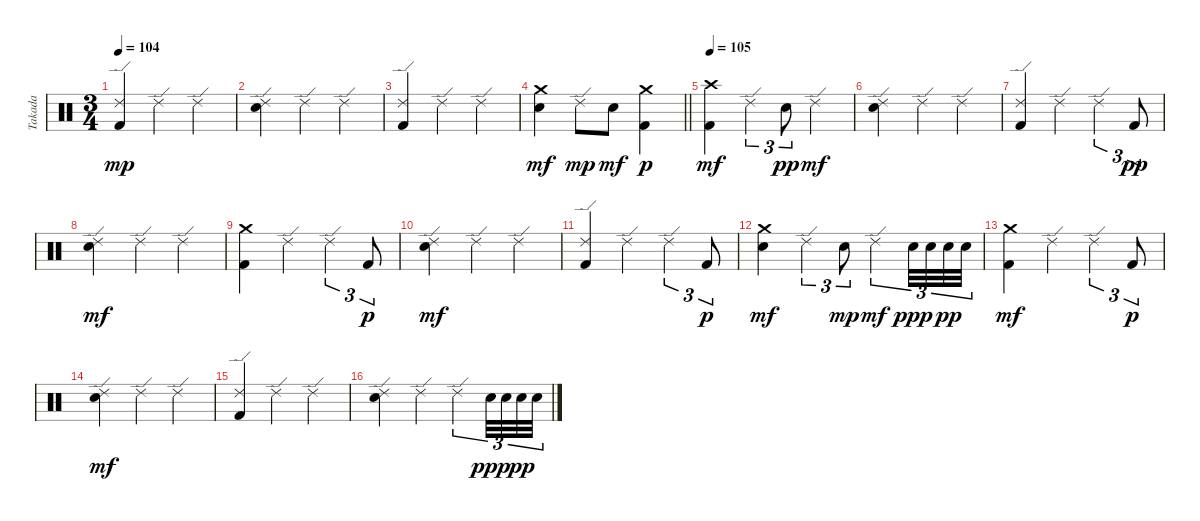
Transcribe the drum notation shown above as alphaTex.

\track ("Takada" "Takada") {instrument percussion}
\staff {score}
\articulation defaults
\ts (3 4)
\tempo 104
\clef neutral
\ks c
("Ride (edge) 2" "Kick (hit) 2").4{dy mp} "Ride (edge) 2".4 "Ride (edge) 2".4 |
("Ride (edge) 2" "Electric Snare (hit)").4 "Ride (edge) 2".4 "Ride (edge) 2".4 |
("Ride (edge) 2" "Kick (hit) 2").4 "Ride (edge) 2".4 "Ride (edge) 2".4 |
\barLineRight lightlight
("Crash medium (hit)" "Electric Snare (hit)").4{dy mf} "Ride (edge) 2".8{dy mp} "Electric Snare (hit)".8{dy mf} ("Crash medium (hit)" "Kick (hit) 2").4{dy p} |
\section ("" "")
\tempo 105
("Crash high (hit)" "Kick (hit) 2").4{dy mf} "Ride (edge) 2".4{tu (3 2)} "Electric Snare (hit)".8{tu (3 2) dy pp} "Ride (edge) 2".4{dy mf} |
("Ride (edge) 2" "Electric Snare (hit)").4 "Ride (edge) 2".4 "Ride (edge) 2".4 |
("Ride (edge) 2" "Kick (hit) 2").4 "Ride (edge) 2".4 "Ride (edge) 2".4{tu (3 2)} "Kick (hit) 2".8{tu (3 2) dy pp} |
("Ride (edge) 2" "Electric Snare (hit)").4{dy mf} "Ride (edge) 2".4 "Ride (edge) 2".4 |
("Crash medium (hit)" "Kick (hit) 2").4 "Ride (edge) 2".4 "Ride (edge) 2".4{tu (3 2)} "Kick (hit) 2".8{tu (3 2) dy p} |
("Ride (edge) 2" "Electric Snare (hit)").4{dy mf} "Ride (edge) 2".4 "Ride (edge) 2".4 |
("Ride (edge) 2" "Kick (hit) 2").4 "Ride (edge) 2".4 "Ride (edge) 2".4{tu (3 2)} "Kick (hit) 2".8{tu (3 2) dy p} |
("Crash medium (hit)" "Electric Snare (hit)").4{dy mf} "Ride (edge) 2".4{tu (3 2)} "Electric Snare (hit)".8{tu (3 2) dy mp} "Ride (edge) 2".4{tu (3 2) dy mf} "Electric Snare (hit)".32{tu (3 2) dy ppp} "Electric Snare (hit)".32{tu (3 2)} "Electric Snare (hit)".32{tu (3 2) dy pp} "Electric Snare (hit)".32{tu (3 2)} |
("Crash medium (hit)" "Kick (hit) 2").4{dy mf} "Ride (edge) 2".4 "Ride (edge) 2".4{tu (3 2)} "Kick (hit) 2".8{tu (3 2) dy p} |
("Ride (edge) 2" "Electric Snare (hit)").4{dy mf} "Ride (edge) 2".4 "Ride (edge) 2".4 |
("Ride (edge) 2" "Kick (hit) 2").4 "Ride (edge) 2".4 "Ride (edge) 2".4 |
("Ride (edge) 2" "Electric Snare (hit)").4 "Ride (edge) 2".4 "Ride (edge) 2".4{tu (3 2)} "Electric Snare (hit)".32{tu (3 2) dy ppp} "Electric Snare (hit)".32{tu (3 2)} "Electric Snare (hit)".32{tu (3 2) dy pp} "Electric Snare (hit)".32{tu (3 2)}
